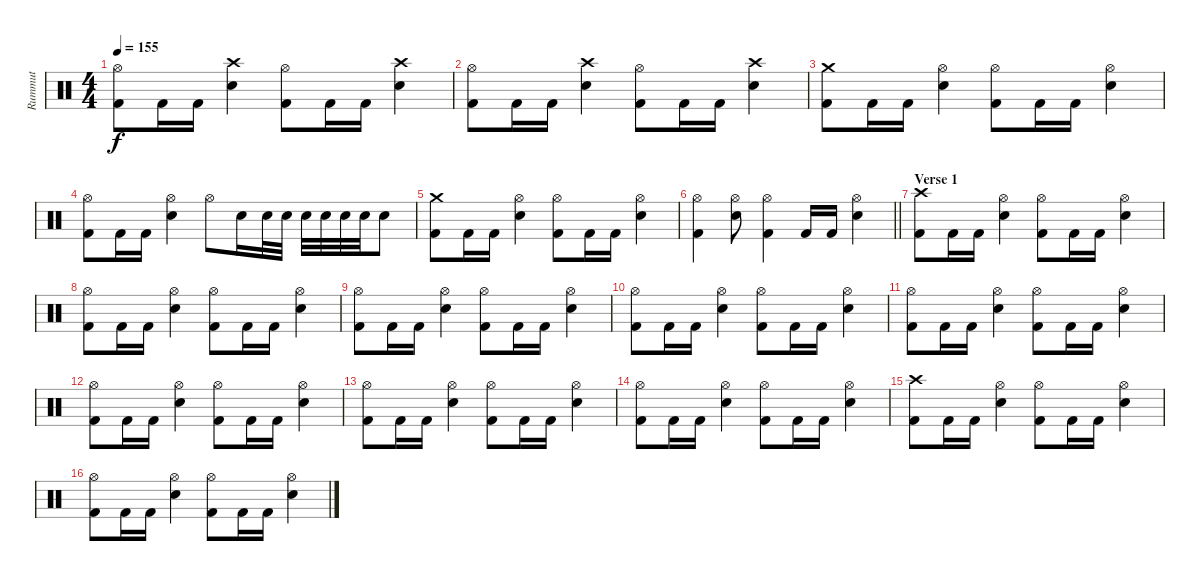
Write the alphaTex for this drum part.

\track ("Rummut" "Rummut") {instrument percussion}
\staff {score}
\articulation defaults
\ts (4 4)
\tempo 155
\clef neutral
\ks c
("Hi-Hat (open)" "Kick (hit) 2").8{dy f} "Kick (hit) 2".16 "Kick (hit) 2".16 ("Crash high (hit)" "Electric Snare (hit)").4 ("Hi-Hat (open)" "Kick (hit) 2").8 "Kick (hit) 2".16 "Kick (hit) 2".16 ("Crash high (hit)" "Electric Snare (hit)").4 |
("Hi-Hat (open)" "Kick (hit) 2").8 "Kick (hit) 2".16 "Kick (hit) 2".16 ("Crash high (hit)" "Electric Snare (hit)").4 ("Hi-Hat (open)" "Kick (hit) 2").8 "Kick (hit) 2".16 "Kick (hit) 2".16 ("Crash high (hit)" "Electric Snare (hit)").4 |
("Crash medium (hit)" "Kick (hit) 2").8 "Kick (hit) 2".16 "Kick (hit) 2".16 ("Hi-Hat (open)" "Electric Snare (hit)").4 ("Hi-Hat (open)" "Kick (hit) 2").8 "Kick (hit) 2".16 "Kick (hit) 2".16 ("Hi-Hat (open)" "Electric Snare (hit)").4 |
("Hi-Hat (open)" "Kick (hit) 2").8 "Kick (hit) 2".16 "Kick (hit) 2".16 ("Hi-Hat (open)" "Electric Snare (hit)").4 "Hi-Hat (open)".8 "Electric Snare (hit)".16 "Electric Snare (hit)".32 "Electric Snare (hit)".32 "Electric Snare (hit)".32 "Electric Snare (hit)".32 "Electric Snare (hit)".32 "Electric Snare (hit)".32 "Electric Snare (hit)".8 |
("Crash medium (hit)" "Kick (hit) 2").8 "Kick (hit) 2".16 "Kick (hit) 2".16 ("Hi-Hat (open)" "Electric Snare (hit)").4 ("Hi-Hat (open)" "Kick (hit) 2").8 "Kick (hit) 2".16 "Kick (hit) 2".16 ("Hi-Hat (open)" "Electric Snare (hit)").4 |
\barLineRight lightlight
("Hi-Hat (open)" "Kick (hit) 2").4 ("Hi-Hat (open)" "Electric Snare (hit)").8 ("Hi-Hat (open)" "Kick (hit) 2").4 "Kick (hit) 2".16 "Kick (hit) 2".16 ("Hi-Hat (open)" "Electric Snare (hit)").4 |
\section ("" "Verse 1")
("Crash high (hit)" "Kick (hit) 2").8 "Kick (hit) 2".16 "Kick (hit) 2".16 ("Hi-Hat (open)" "Electric Snare (hit)").4 ("Hi-Hat (open)" "Kick (hit) 2").8 "Kick (hit) 2".16 "Kick (hit) 2".16 ("Hi-Hat (open)" "Electric Snare (hit)").4 |
("Hi-Hat (open)" "Kick (hit) 2").8 "Kick (hit) 2".16 "Kick (hit) 2".16 ("Hi-Hat (open)" "Electric Snare (hit)").4 ("Hi-Hat (open)" "Kick (hit) 2").8 "Kick (hit) 2".16 "Kick (hit) 2".16 ("Hi-Hat (open)" "Electric Snare (hit)").4 |
("Hi-Hat (open)" "Kick (hit) 2").8 "Kick (hit) 2".16 "Kick (hit) 2".16 ("Hi-Hat (open)" "Electric Snare (hit)").4 ("Hi-Hat (open)" "Kick (hit) 2").8 "Kick (hit) 2".16 "Kick (hit) 2".16 ("Hi-Hat (open)" "Electric Snare (hit)").4 |
("Hi-Hat (open)" "Kick (hit) 2").8 "Kick (hit) 2".16 "Kick (hit) 2".16 ("Hi-Hat (open)" "Electric Snare (hit)").4 ("Hi-Hat (open)" "Kick (hit) 2").8 "Kick (hit) 2".16 "Kick (hit) 2".16 ("Hi-Hat (open)" "Electric Snare (hit)").4 |
("Hi-Hat (open)" "Kick (hit) 2").8 "Kick (hit) 2".16 "Kick (hit) 2".16 ("Hi-Hat (open)" "Electric Snare (hit)").4 ("Hi-Hat (open)" "Kick (hit) 2").8 "Kick (hit) 2".16 "Kick (hit) 2".16 ("Hi-Hat (open)" "Electric Snare (hit)").4 |
("Hi-Hat (open)" "Kick (hit) 2").8 "Kick (hit) 2".16 "Kick (hit) 2".16 ("Hi-Hat (open)" "Electric Snare (hit)").4 ("Hi-Hat (open)" "Kick (hit) 2").8 "Kick (hit) 2".16 "Kick (hit) 2".16 ("Hi-Hat (open)" "Electric Snare (hit)").4 |
("Hi-Hat (open)" "Kick (hit) 2").8 "Kick (hit) 2".16 "Kick (hit) 2".16 ("Hi-Hat (open)" "Electric Snare (hit)").4 ("Hi-Hat (open)" "Kick (hit) 2").8 "Kick (hit) 2".16 "Kick (hit) 2".16 ("Hi-Hat (open)" "Electric Snare (hit)").4 |
("Hi-Hat (open)" "Kick (hit) 2").8 "Kick (hit) 2".16 "Kick (hit) 2".16 ("Hi-Hat (open)" "Electric Snare (hit)").4 ("Hi-Hat (open)" "Kick (hit) 2").8 "Kick (hit) 2".16 "Kick (hit) 2".16 ("Hi-Hat (open)" "Electric Snare (hit)").4 |
("Crash high (hit)" "Kick (hit) 2").8 "Kick (hit) 2".16 "Kick (hit) 2".16 ("Hi-Hat (open)" "Electric Snare (hit)").4 ("Hi-Hat (open)" "Kick (hit) 2").8 "Kick (hit) 2".16 "Kick (hit) 2".16 ("Hi-Hat (open)" "Electric Snare (hit)").4 |
("Hi-Hat (open)" "Kick (hit) 2").8 "Kick (hit) 2".16 "Kick (hit) 2".16 ("Hi-Hat (open)" "Electric Snare (hit)").4 ("Hi-Hat (open)" "Kick (hit) 2").8 "Kick (hit) 2".16 "Kick (hit) 2".16 ("Hi-Hat (open)" "Electric Snare (hit)").4
